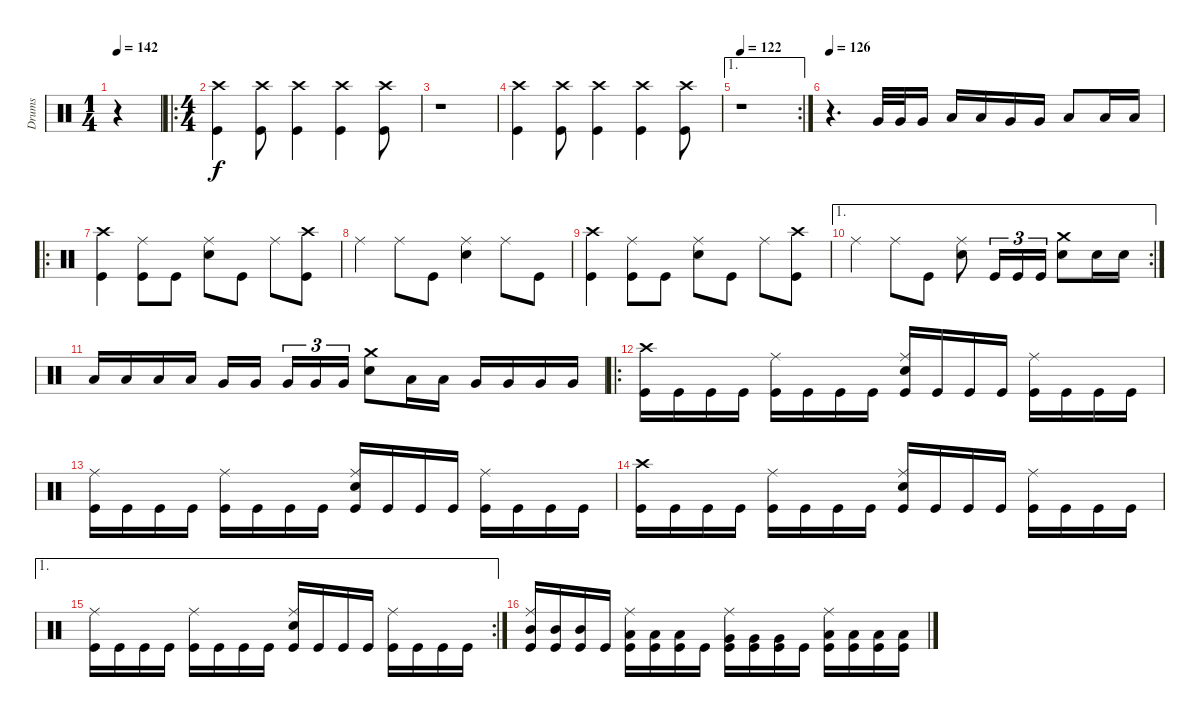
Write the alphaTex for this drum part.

\track ("Drums" "Drums") {instrument percussion}
\staff {score}
\articulation defaults
\ts (1 4)
\tempo 142
\tempo 116
\tempo 142
\clef neutral
\ks c
r.4{dy f} |
\ro
\ts (4 4)
("Crash high (hit)" "Kick (hit)").4 ("Crash high (hit)" "Kick (hit)").8 ("Crash high (hit)" "Kick (hit)").4 ("Crash high (hit)" "Kick (hit)").4 ("Crash high (hit)" "Kick (hit)").8 |
r.1 |
("Crash high (hit)" "Kick (hit)").4 ("Crash high (hit)" "Kick (hit)").8 ("Crash high (hit)" "Kick (hit)").4 ("Crash high (hit)" "Kick (hit)").4 ("Crash high (hit)" "Kick (hit)").8 |
\ae 1
\rc 2
\tempo 122
r.1 |
\tempo 126
r.4{d} "Very Low Tom (hit)".32 "Very Low Tom (hit)".32 "Very Low Tom (hit)".16 "Low Tom (hit)".16 "Low Tom (hit)".16 "Very Low Tom (hit)".16 "Very Low Tom (hit)".16 "Low Floor Tom (hit)".8 "Low Floor Tom (hit)".16 "Low Floor Tom (hit)".16 |
\ro
("Crash high (hit)" "Kick (hit)").4 ("Ride (middle)" "Kick (hit)").8 "Kick (hit)".8 ("Ride (middle)" "Electric Snare (hit)").8 "Kick (hit)".8 "Ride (middle)".8 ("Crash high (hit)" "Kick (hit)").8 |
"Ride (middle)".4 "Ride (middle)".8 "Kick (hit)".8 ("Ride (middle)" "Electric Snare (hit)").4 "Ride (middle)".8 "Kick (hit)".8 |
("Crash high (hit)" "Kick (hit)").4 ("Ride (middle)" "Kick (hit)").8 "Kick (hit)".8 ("Ride (middle)" "Electric Snare (hit)").8 "Kick (hit)".8 "Ride (middle)".8 ("Crash high (hit)" "Kick (hit)").8 |
\ae 1
\rc 2 "Ride (middle)".4 "Ride (middle)".8 "Kick (hit)".8
("Ride (middle)" "Electric Snare (hit)").8 "Kick (hit)".16{tu (3 2)} "Kick (hit)".16{tu (3 2)} "Kick (hit)".16{tu (3 2)} ("Crash medium (hit)" "Electric Snare (hit)").8 "Electric Snare (hit)".16 "Electric Snare (hit)".16 |
"Low Tom (hit)".16 "Low Tom (hit)".16 "Low Tom (hit)".16 "Low Tom (hit)".16 "Very Low Tom (hit)".16 "Very Low Tom (hit)".16 "Very Low Tom (hit)".16{tu (3 2)} "Very Low Tom (hit)".16{tu (3 2)} "Very Low Tom (hit)".16{tu (3 2)} ("Crash medium (hit)" "Electric Snare (hit)").8 "Low Tom (hit)".16 "Low Tom (hit)".16 "Very Low Tom (hit)".16 "Very Low Tom (hit)".16 "Very Low Tom (hit)".16 "Very Low Tom (hit)".16 |
\ro
("Crash high (hit)" "Kick (hit)").16 "Kick (hit)".16 "Kick (hit)".16 "Kick (hit)".16 ("Ride (middle)" "Kick (hit)").16 "Kick (hit)".16 "Kick (hit)".16 "Kick (hit)".16 ("Ride (middle)" "Electric Snare (hit)" "Kick (hit)").16 "Kick (hit)".16 "Kick (hit)".16 "Kick (hit)".16 ("Ride (middle)" "Kick (hit)").16 "Kick (hit)".16 "Kick (hit)".16 "Kick (hit)".16 |
("Ride (middle)" "Kick (hit)").16 "Kick (hit)".16 "Kick (hit)".16 "Kick (hit)".16 ("Ride (middle)" "Kick (hit)").16 "Kick (hit)".16 "Kick (hit)".16 "Kick (hit)".16 ("Ride (middle)" "Electric Snare (hit)" "Kick (hit)").16 "Kick (hit)".16 "Kick (hit)".16 "Kick (hit)".16 ("Ride (middle)" "Kick (hit)").16 "Kick (hit)".16 "Kick (hit)".16 "Kick (hit)".16 |
("Crash high (hit)" "Kick (hit)").16 "Kick (hit)".16 "Kick (hit)".16 "Kick (hit)".16 ("Ride (middle)" "Kick (hit)").16 "Kick (hit)".16 "Kick (hit)".16 "Kick (hit)".16 ("Ride (middle)" "Electric Snare (hit)" "Kick (hit)").16 "Kick (hit)".16 "Kick (hit)".16 "Kick (hit)".16 ("Ride (middle)" "Kick (hit)").16 "Kick (hit)".16 "Kick (hit)".16 "Kick (hit)".16 |
\ae 1
\rc 2
("Ride (middle)" "Kick (hit)").16 "Kick (hit)".16 "Kick (hit)".16 "Kick (hit)".16 ("Ride (middle)" "Kick (hit)").16 "Kick (hit)".16 "Kick (hit)".16 "Kick (hit)".16 ("Ride (middle)" "Electric Snare (hit)" "Kick (hit)").16 "Kick (hit)".16 "Kick (hit)".16 "Kick (hit)".16 ("Ride (middle)" "Kick (hit)").16 "Kick (hit)".16 "Kick (hit)".16 "Kick (hit)".16 |
("Mid Tom (hit)" "Ride (middle)" "Kick (hit)").16 ("Mid Tom (hit)" "Kick (hit)").16 ("Mid Tom (hit)" "Kick (hit)").16 "Kick (hit)".16 ("Low Tom (hit)" "Ride (middle)" "Kick (hit)").16 ("Low Tom (hit)" "Kick (hit)").16 ("Low Tom (hit)" "Kick (hit)").16 "Kick (hit)".16 ("Very Low Tom (hit)" "Ride (middle)" "Kick (hit)").16 ("Very Low Tom (hit)" "Kick (hit)").16 ("Very Low Tom (hit)" "Kick (hit)").16 "Kick (hit)".16 ("Low Floor Tom (hit)" "Ride (middle)" "Kick (hit)").16 ("Low Floor Tom (hit)" "Kick (hit)").16 ("Low Floor Tom (hit)" "Kick (hit)").16 ("Low Floor Tom (hit)" "Kick (hit)").16
